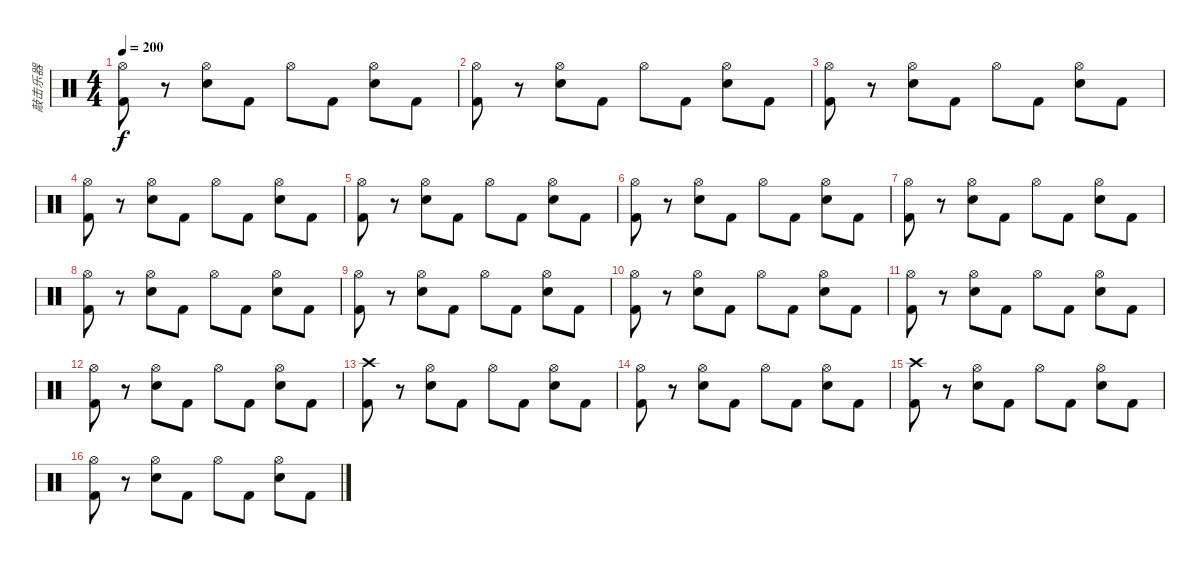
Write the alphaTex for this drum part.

\track ("敲击乐器" "敲击乐器") {instrument percussion}
\staff {score}
\articulation defaults
\ts (4 4)
\tempo 200
\clef neutral
\ks c
("Hi-Hat (open)" "Kick (hit) 2").8{dy f} r.8 ("Hi-Hat (open)" "Electric Snare (hit)").8 "Kick (hit) 2".8 "Hi-Hat (open)".8 "Kick (hit) 2".8 ("Hi-Hat (open)" "Electric Snare (hit)").8 "Kick (hit) 2".8 |
("Hi-Hat (open)" "Kick (hit) 2").8 r.8 ("Hi-Hat (open)" "Electric Snare (hit)").8 "Kick (hit) 2".8 "Hi-Hat (open)".8 "Kick (hit) 2".8 ("Hi-Hat (open)" "Electric Snare (hit)").8 "Kick (hit) 2".8 |
("Hi-Hat (open)" "Kick (hit) 2").8 r.8 ("Hi-Hat (open)" "Electric Snare (hit)").8 "Kick (hit) 2".8 "Hi-Hat (open)".8 "Kick (hit) 2".8 ("Hi-Hat (open)" "Electric Snare (hit)").8 "Kick (hit) 2".8 |
("Hi-Hat (open)" "Kick (hit) 2").8 r.8 ("Hi-Hat (open)" "Electric Snare (hit)").8 "Kick (hit) 2".8 "Hi-Hat (open)".8 "Kick (hit) 2".8 ("Hi-Hat (open)" "Electric Snare (hit)").8 "Kick (hit) 2".8 |
("Hi-Hat (open)" "Kick (hit) 2").8 r.8 ("Hi-Hat (open)" "Electric Snare (hit)").8 "Kick (hit) 2".8 "Hi-Hat (open)".8 "Kick (hit) 2".8 ("Hi-Hat (open)" "Electric Snare (hit)").8 "Kick (hit) 2".8 |
("Hi-Hat (open)" "Kick (hit) 2").8 r.8 ("Hi-Hat (open)" "Electric Snare (hit)").8 "Kick (hit) 2".8 "Hi-Hat (open)".8 "Kick (hit) 2".8 ("Hi-Hat (open)" "Electric Snare (hit)").8 "Kick (hit) 2".8 |
("Hi-Hat (open)" "Kick (hit) 2").8 r.8 ("Hi-Hat (open)" "Electric Snare (hit)").8 "Kick (hit) 2".8 "Hi-Hat (open)".8 "Kick (hit) 2".8 ("Hi-Hat (open)" "Electric Snare (hit)").8 "Kick (hit) 2".8 |
("Hi-Hat (open)" "Kick (hit) 2").8 r.8 ("Hi-Hat (open)" "Electric Snare (hit)").8 "Kick (hit) 2".8 "Hi-Hat (open)".8 "Kick (hit) 2".8 ("Hi-Hat (open)" "Electric Snare (hit)").8 "Kick (hit) 2".8 |
("Hi-Hat (open)" "Kick (hit) 2").8 r.8 ("Hi-Hat (open)" "Electric Snare (hit)").8 "Kick (hit) 2".8 "Hi-Hat (open)".8 "Kick (hit) 2".8 ("Hi-Hat (open)" "Electric Snare (hit)").8 "Kick (hit) 2".8 |
("Hi-Hat (open)" "Kick (hit) 2").8 r.8 ("Hi-Hat (open)" "Electric Snare (hit)").8 "Kick (hit) 2".8 "Hi-Hat (open)".8 "Kick (hit) 2".8 ("Hi-Hat (open)" "Electric Snare (hit)").8 "Kick (hit) 2".8 |
("Hi-Hat (open)" "Kick (hit) 2").8 r.8 ("Hi-Hat (open)" "Electric Snare (hit)").8 "Kick (hit) 2".8 "Hi-Hat (open)".8 "Kick (hit) 2".8 ("Hi-Hat (open)" "Electric Snare (hit)").8 "Kick (hit) 2".8 |
("Hi-Hat (open)" "Kick (hit) 2").8 r.8 ("Hi-Hat (open)" "Electric Snare (hit)").8 "Kick (hit) 2".8 "Hi-Hat (open)".8 "Kick (hit) 2".8 ("Hi-Hat (open)" "Electric Snare (hit)").8 "Kick (hit) 2".8 |
("Crash high (hit)" "Kick (hit) 2").8 r.8 ("Hi-Hat (open)" "Electric Snare (hit)").8 "Kick (hit) 2".8 "Hi-Hat (open)".8 "Kick (hit) 2".8 ("Hi-Hat (open)" "Electric Snare (hit)").8 "Kick (hit) 2".8 |
("Hi-Hat (open)" "Kick (hit) 2").8 r.8 ("Hi-Hat (open)" "Electric Snare (hit)").8 "Kick (hit) 2".8 "Hi-Hat (open)".8 "Kick (hit) 2".8 ("Hi-Hat (open)" "Electric Snare (hit)").8 "Kick (hit) 2".8 |
("Crash high (hit)" "Kick (hit) 2").8 r.8 ("Hi-Hat (open)" "Electric Snare (hit)").8 "Kick (hit) 2".8 "Hi-Hat (open)".8 "Kick (hit) 2".8 ("Hi-Hat (open)" "Electric Snare (hit)").8 "Kick (hit) 2".8 |
("Hi-Hat (open)" "Kick (hit) 2").8 r.8 ("Hi-Hat (open)" "Electric Snare (hit)").8 "Kick (hit) 2".8 "Hi-Hat (open)".8 "Kick (hit) 2".8 ("Hi-Hat (open)" "Electric Snare (hit)").8 "Kick (hit) 2".8
